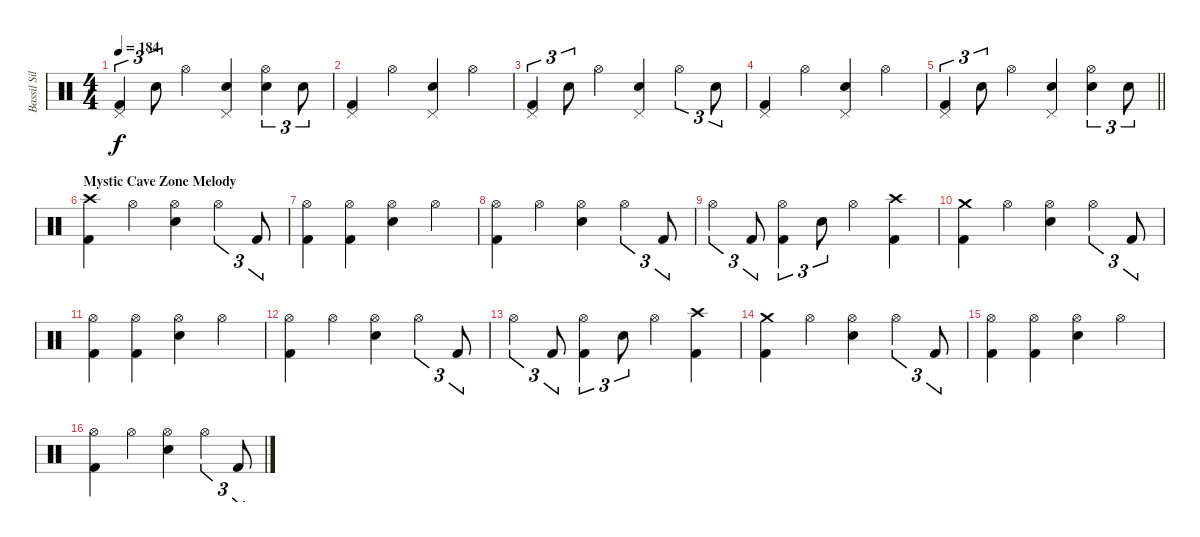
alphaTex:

\track ("Bassil Silver-Hajo" "Bassil Sil") {instrument percussion}
\staff {score}
\articulation defaults
\ts (4 4)
\tempo 184
\clef neutral
\ks c
("Pedal Hi-Hat (hit)" "Kick (hit) 2").4{tu (3 2) dy f} "Snare (hit) 2".8{tu (3 2)} "Hi-Hat (open)".4 ("Pedal Hi-Hat (hit)" "Snare (hit) 2").4 ("Hi-Hat (open)" "Snare (hit) 2").4{tu (3 2)} "Snare (hit) 2".8{tu (3 2)} |
("Pedal Hi-Hat (hit)" "Kick (hit) 2").4 "Hi-Hat (open)".4 ("Pedal Hi-Hat (hit)" "Snare (hit) 2").4 "Hi-Hat (open)".4 |
("Pedal Hi-Hat (hit)" "Kick (hit) 2").4{tu (3 2)} "Snare (hit) 2".8{tu (3 2)} "Hi-Hat (open)".4 ("Pedal Hi-Hat (hit)" "Snare (hit) 2").4 "Hi-Hat (open)".4{tu (3 2)} "Snare (hit) 2".8{tu (3 2)} |
("Pedal Hi-Hat (hit)" "Kick (hit) 2").4 "Hi-Hat (open)".4 ("Pedal Hi-Hat (hit)" "Snare (hit) 2").4 "Hi-Hat (open)".4 |
\barLineRight lightlight
("Pedal Hi-Hat (hit)" "Kick (hit) 2").4{tu (3 2)} "Snare (hit) 2".8{tu (3 2)} "Hi-Hat (open)".4 ("Pedal Hi-Hat (hit)" "Snare (hit) 2").4 ("Hi-Hat (open)" "Snare (hit) 2").4{tu (3 2)} "Snare (hit) 2".8{tu (3 2)} |
\section ("" "Mystic Cave Zone Melody")
("Crash high (hit)" "Kick (hit) 2").4 "Hi-Hat (open)".4 ("Hi-Hat (open)" "Snare (hit) 2").4 "Hi-Hat (open)".4{tu (3 2)} "Kick (hit) 2".8{tu (3 2)} |
("Hi-Hat (open)" "Kick (hit) 2").4 ("Hi-Hat (open)" "Kick (hit) 2").4 ("Hi-Hat (open)" "Snare (hit) 2").4 "Hi-Hat (open)".4 |
("Hi-Hat (open)" "Kick (hit) 2").4 "Hi-Hat (open)".4 ("Hi-Hat (open)" "Snare (hit) 2").4 "Hi-Hat (open)".4{tu (3 2)} "Kick (hit) 2".8{tu (3 2)} |
"Hi-Hat (open)".4{tu (3 2)} "Kick (hit) 2".8{tu (3 2)} ("Hi-Hat (open)" "Kick (hit) 2").4{tu (3 2)} "Snare (hit) 2".8{tu (3 2)} "Hi-Hat (open)".4 ("Crash high (hit)" "Kick (hit) 2").4 |
("Crash medium (hit)" "Kick (hit) 2").4 "Hi-Hat (open)".4 ("Hi-Hat (open)" "Snare (hit) 2").4 "Hi-Hat (open)".4{tu (3 2)} "Kick (hit) 2".8{tu (3 2)} |
("Hi-Hat (open)" "Kick (hit) 2").4 ("Hi-Hat (open)" "Kick (hit) 2").4 ("Hi-Hat (open)" "Snare (hit) 2").4 "Hi-Hat (open)".4 |
("Hi-Hat (open)" "Kick (hit) 2").4 "Hi-Hat (open)".4 ("Hi-Hat (open)" "Snare (hit) 2").4 "Hi-Hat (open)".4{tu (3 2)} "Kick (hit) 2".8{tu (3 2)} |
"Hi-Hat (open)".4{tu (3 2)} "Kick (hit) 2".8{tu (3 2)} ("Hi-Hat (open)" "Kick (hit) 2").4{tu (3 2)} "Snare (hit) 2".8{tu (3 2)} "Hi-Hat (open)".4 ("Crash high (hit)" "Kick (hit) 2").4 |
("Crash medium (hit)" "Kick (hit) 2").4 "Hi-Hat (open)".4 ("Hi-Hat (open)" "Snare (hit) 2").4 "Hi-Hat (open)".4{tu (3 2)} "Kick (hit) 2".8{tu (3 2)} |
("Hi-Hat (open)" "Kick (hit) 2").4 ("Hi-Hat (open)" "Kick (hit) 2").4 ("Hi-Hat (open)" "Snare (hit) 2").4 "Hi-Hat (open)".4 |
("Hi-Hat (open)" "Kick (hit) 2").4 "Hi-Hat (open)".4 ("Hi-Hat (open)" "Snare (hit) 2").4 "Hi-Hat (open)".4{tu (3 2)} "Kick (hit) 2".8{tu (3 2)}
